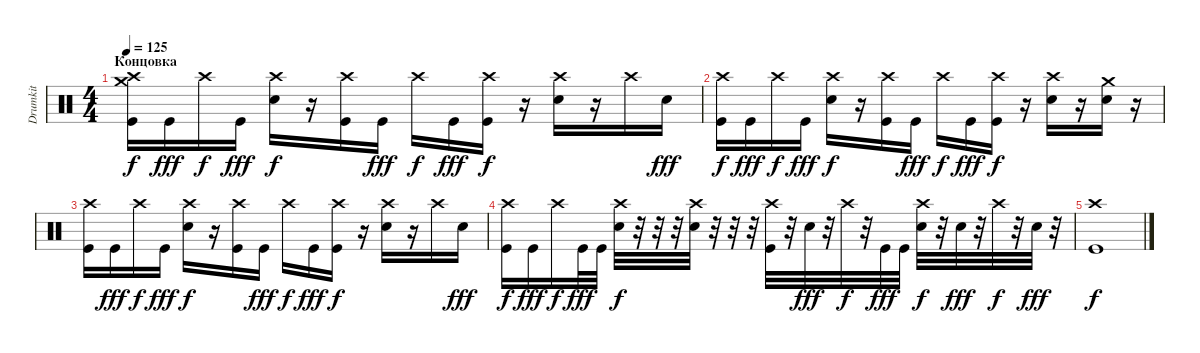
\track ("Drumkit" "Drumkit") {instrument percussion}
\staff {score}
\articulation defaults
\ts (4 4)
\section ("" "Концовка")
\tempo 125
\clef neutral
\ks c
("Crash high (hit)" "Crash medium (hit)" "Kick (hit)").16{dy f} "Kick (hit)".16{dy fff} "Crash high (hit)".16{dy f} "Kick (hit)".16{dy fff} ("Crash high (hit)" "Snare (hit) 2").16{dy f} r.16 ("Crash high (hit)" "Kick (hit)").16 "Kick (hit)".16{dy fff} "Crash high (hit)".16{dy f} "Kick (hit)".16{dy fff} ("Crash high (hit)" "Kick (hit)").16{dy f} r.16 ("Crash high (hit)" "Snare (hit) 2").16 r.16 "Crash high (hit)".16 "Snare (hit) 2".16{dy fff} |
("Crash high (hit)" "Kick (hit)").16{dy f} "Kick (hit)".16{dy fff} "Crash high (hit)".16{dy f} "Kick (hit)".16{dy fff} ("Crash high (hit)" "Snare (hit) 2").16{dy f} r.16 ("Crash high (hit)" "Kick (hit)").16 "Kick (hit)".16{dy fff} "Crash high (hit)".16{dy f} "Kick (hit)".16{dy fff} ("Crash high (hit)" "Kick (hit)").16{dy f} r.16 ("Crash high (hit)" "Snare (hit) 2").16 r.16 ("Crash medium (hit)" "Snare (hit) 2").16 r.16 |
("Crash high (hit)" "Kick (hit)").16 "Kick (hit)".16{dy fff} "Crash high (hit)".16{dy f} "Kick (hit)".16{dy fff} ("Crash high (hit)" "Snare (hit) 2").16{dy f} r.16 ("Crash high (hit)" "Kick (hit)").16 "Kick (hit)".16{dy fff} "Crash high (hit)".16{dy f} "Kick (hit)".16{dy fff} ("Crash high (hit)" "Kick (hit)").16{dy f} r.16 ("Crash high (hit)" "Snare (hit) 2").16 r.16 "Crash high (hit)".16 "Snare (hit) 2".16{dy fff} |
("Crash high (hit)" "Kick (hit)").16{dy f} "Kick (hit)".16{dy fff} "Crash high (hit)".16{dy f} "Kick (hit)".32{dy fff} "Kick (hit)".32 ("Crash high (hit)" "Snare (hit) 2").32{dy f} r.32 r.32 r.32 ("Crash high (hit)" "Snare (hit) 2").32 r.32 r.32 r.32 ("Crash high (hit)" "Kick (hit)").32 r.32 "Snare (hit) 2".32{dy fff} r.32 "Crash high (hit)".32{dy f} r.32 "Kick (hit)".32{dy fff} "Kick (hit)".32 ("Crash high (hit)" "Snare (hit) 2").32{dy f} r.32 "Snare (hit) 2".32{dy fff} r.32 "Crash high (hit)".32{dy f} r.32 "Snare (hit) 2".32{dy fff} r.32 |
("Kick (hit)" "Crash high (hit)").1{dy f}
